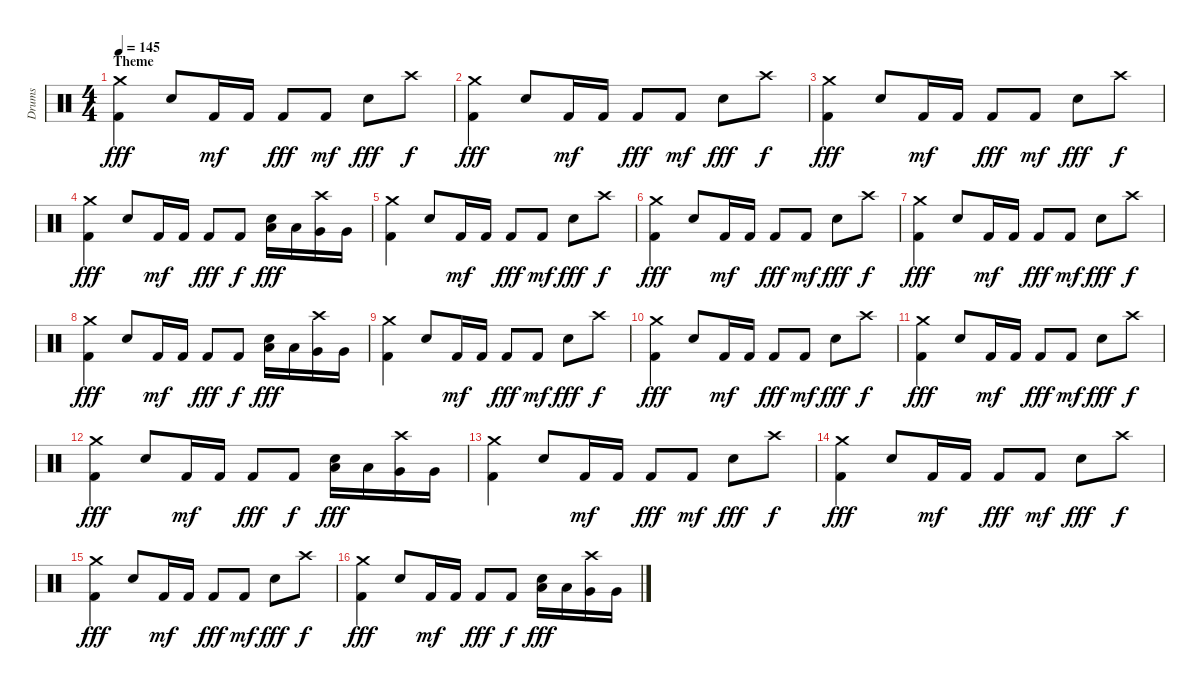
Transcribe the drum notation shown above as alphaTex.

\track ("Drums" "Drums") {instrument percussion}
\staff {score}
\articulation defaults
\ts (4 4)
\section ("" "Theme")
\tempo 145
\clef neutral
\ks c
("Crash medium (hit)" "Kick (hit) 2").4{dy fff} "Snare (hit) 2".8 "Kick (hit) 2".16{dy mf} "Kick (hit) 2".16 "Kick (hit) 2".8{dy fff} "Kick (hit) 2".8{dy mf} "Snare (hit) 2".8{dy fff} "Crash high (hit)".8{dy f} |
("Crash medium (hit)" "Kick (hit) 2").4{dy fff} "Snare (hit) 2".8 "Kick (hit) 2".16{dy mf} "Kick (hit) 2".16 "Kick (hit) 2".8{dy fff} "Kick (hit) 2".8{dy mf} "Snare (hit) 2".8{dy fff} "Crash high (hit)".8{dy f} |
("Crash medium (hit)" "Kick (hit) 2").4{dy fff} "Snare (hit) 2".8 "Kick (hit) 2".16{dy mf} "Kick (hit) 2".16 "Kick (hit) 2".8{dy fff} "Kick (hit) 2".8{dy mf} "Snare (hit) 2".8{dy fff} "Crash high (hit)".8{dy f} |
("Crash medium (hit)" "Kick (hit) 2").4{dy fff} "Snare (hit) 2".8 "Kick (hit) 2".16{dy mf} "Kick (hit) 2".16 "Kick (hit) 2".8{dy fff} "Kick (hit) 2".8{dy f} ("Low Tom (hit)" "Snare (hit) 2").16{dy fff} "Low Tom (hit)".16 ("Crash high (hit)" "Very Low Tom (hit)").16 "Very Low Tom (hit)".16 |
("Crash medium (hit)" "Kick (hit) 2").4 "Snare (hit) 2".8 "Kick (hit) 2".16{dy mf} "Kick (hit) 2".16 "Kick (hit) 2".8{dy fff} "Kick (hit) 2".8{dy mf} "Snare (hit) 2".8{dy fff} "Crash high (hit)".8{dy f} |
("Crash medium (hit)" "Kick (hit) 2").4{dy fff} "Snare (hit) 2".8 "Kick (hit) 2".16{dy mf} "Kick (hit) 2".16 "Kick (hit) 2".8{dy fff} "Kick (hit) 2".8{dy mf} "Snare (hit) 2".8{dy fff} "Crash high (hit)".8{dy f} |
("Crash medium (hit)" "Kick (hit) 2").4{dy fff} "Snare (hit) 2".8 "Kick (hit) 2".16{dy mf} "Kick (hit) 2".16 "Kick (hit) 2".8{dy fff} "Kick (hit) 2".8{dy mf} "Snare (hit) 2".8{dy fff} "Crash high (hit)".8{dy f} |
("Crash medium (hit)" "Kick (hit) 2").4{dy fff} "Snare (hit) 2".8 "Kick (hit) 2".16{dy mf} "Kick (hit) 2".16 "Kick (hit) 2".8{dy fff} "Kick (hit) 2".8{dy f} ("Low Tom (hit)" "Snare (hit) 2").16{dy fff} "Low Tom (hit)".16 ("Crash high (hit)" "Very Low Tom (hit)").16 "Very Low Tom (hit)".16 |
("Crash medium (hit)" "Kick (hit) 2").4 "Snare (hit) 2".8 "Kick (hit) 2".16{dy mf} "Kick (hit) 2".16 "Kick (hit) 2".8{dy fff} "Kick (hit) 2".8{dy mf} "Snare (hit) 2".8{dy fff} "Crash high (hit)".8{dy f} |
("Crash medium (hit)" "Kick (hit) 2").4{dy fff} "Snare (hit) 2".8 "Kick (hit) 2".16{dy mf} "Kick (hit) 2".16 "Kick (hit) 2".8{dy fff} "Kick (hit) 2".8{dy mf} "Snare (hit) 2".8{dy fff} "Crash high (hit)".8{dy f} |
("Crash medium (hit)" "Kick (hit) 2").4{dy fff} "Snare (hit) 2".8 "Kick (hit) 2".16{dy mf} "Kick (hit) 2".16 "Kick (hit) 2".8{dy fff} "Kick (hit) 2".8{dy mf} "Snare (hit) 2".8{dy fff} "Crash high (hit)".8{dy f} |
("Crash medium (hit)" "Kick (hit) 2").4{dy fff} "Snare (hit) 2".8 "Kick (hit) 2".16{dy mf} "Kick (hit) 2".16 "Kick (hit) 2".8{dy fff} "Kick (hit) 2".8{dy f} ("Low Tom (hit)" "Snare (hit) 2").16{dy fff} "Low Tom (hit)".16 ("Crash high (hit)" "Very Low Tom (hit)").16 "Very Low Tom (hit)".16 |
("Crash medium (hit)" "Kick (hit) 2").4 "Snare (hit) 2".8 "Kick (hit) 2".16{dy mf} "Kick (hit) 2".16 "Kick (hit) 2".8{dy fff} "Kick (hit) 2".8{dy mf} "Snare (hit) 2".8{dy fff} "Crash high (hit)".8{dy f} |
("Crash medium (hit)" "Kick (hit) 2").4{dy fff} "Snare (hit) 2".8 "Kick (hit) 2".16{dy mf} "Kick (hit) 2".16 "Kick (hit) 2".8{dy fff} "Kick (hit) 2".8{dy mf} "Snare (hit) 2".8{dy fff} "Crash high (hit)".8{dy f} |
("Crash medium (hit)" "Kick (hit) 2").4{dy fff} "Snare (hit) 2".8 "Kick (hit) 2".16{dy mf} "Kick (hit) 2".16 "Kick (hit) 2".8{dy fff} "Kick (hit) 2".8{dy mf} "Snare (hit) 2".8{dy fff} "Crash high (hit)".8{dy f} |
("Crash medium (hit)" "Kick (hit) 2").4{dy fff} "Snare (hit) 2".8 "Kick (hit) 2".16{dy mf} "Kick (hit) 2".16 "Kick (hit) 2".8{dy fff} "Kick (hit) 2".8{dy f} ("Low Tom (hit)" "Snare (hit) 2").16{dy fff} "Low Tom (hit)".16 ("Crash high (hit)" "Very Low Tom (hit)").16 "Very Low Tom (hit)".16
